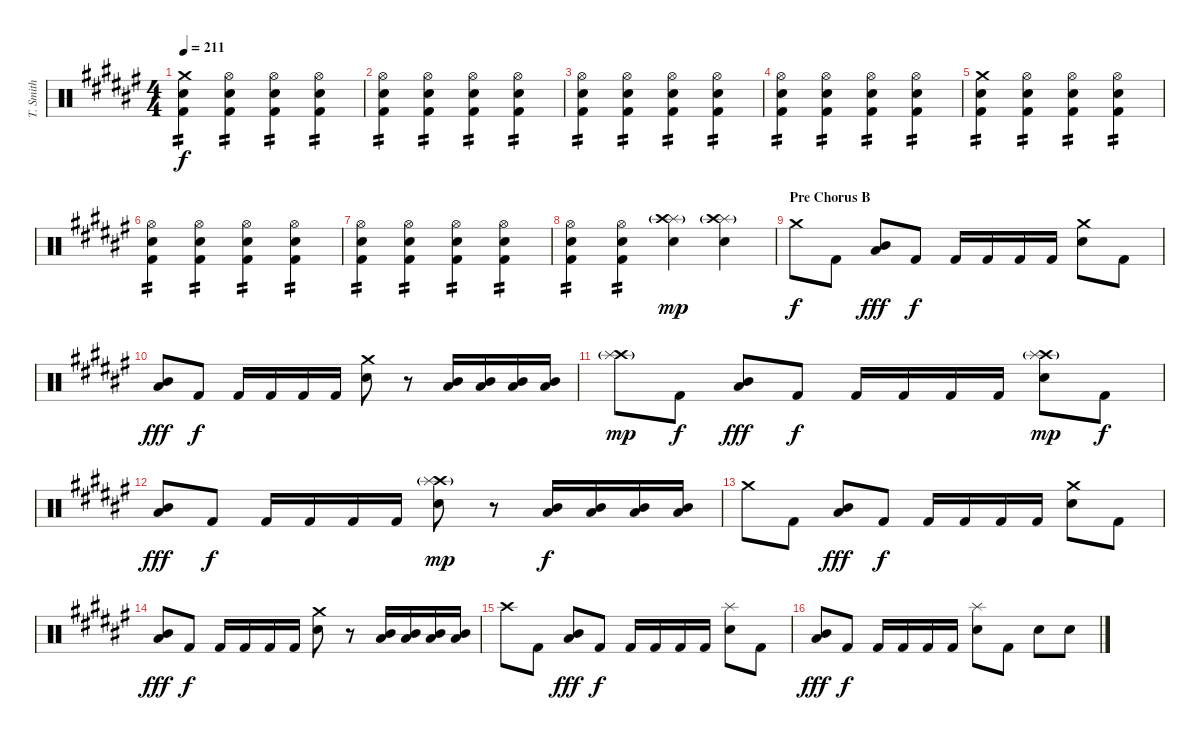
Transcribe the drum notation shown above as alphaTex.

\track ("T. Smith" "T. Smith") {instrument percussion}
\staff {score}
\articulation defaults
\ts (4 4)
\tempo 211
\clef neutral
\ks d#minor
("Crash medium (hit)" "Electric Snare (hit)" "Kick (hit) 2").4{tp 2 dy f} ("Hi-Hat (open)" "Electric Snare (hit)" "Kick (hit) 2").4{tp 2} ("Hi-Hat (open)" "Electric Snare (hit)" "Kick (hit) 2").4{tp 2} ("Hi-Hat (open)" "Electric Snare (hit)" "Kick (hit) 2").4{tp 2} |
("Hi-Hat (open)" "Electric Snare (hit)" "Kick (hit) 2").4{tp 2} ("Hi-Hat (open)" "Electric Snare (hit)" "Kick (hit) 2").4{tp 2} ("Hi-Hat (open)" "Electric Snare (hit)" "Kick (hit) 2").4{tp 2} ("Hi-Hat (open)" "Electric Snare (hit)" "Kick (hit) 2").4{tp 2} |
("Hi-Hat (open)" "Electric Snare (hit)" "Kick (hit) 2").4{tp 2} ("Hi-Hat (open)" "Electric Snare (hit)" "Kick (hit) 2").4{tp 2} ("Hi-Hat (open)" "Electric Snare (hit)" "Kick (hit) 2").4{tp 2} ("Hi-Hat (open)" "Electric Snare (hit)" "Kick (hit) 2").4{tp 2} |
("Hi-Hat (open)" "Electric Snare (hit)" "Kick (hit) 2").4{tp 2} ("Hi-Hat (open)" "Electric Snare (hit)" "Kick (hit) 2").4{tp 2} ("Hi-Hat (open)" "Electric Snare (hit)" "Kick (hit) 2").4{tp 2} ("Hi-Hat (open)" "Electric Snare (hit)" "Kick (hit) 2").4{tp 2} |
("Crash medium (hit)" "Electric Snare (hit)" "Kick (hit) 2").4{tp 2} ("Hi-Hat (open)" "Electric Snare (hit)" "Kick (hit) 2").4{tp 2} ("Hi-Hat (open)" "Electric Snare (hit)" "Kick (hit) 2").4{tp 2} ("Hi-Hat (open)" "Electric Snare (hit)" "Kick (hit) 2").4{tp 2} |
("Hi-Hat (open)" "Electric Snare (hit)" "Kick (hit) 2").4{tp 2} ("Hi-Hat (open)" "Electric Snare (hit)" "Kick (hit) 2").4{tp 2} ("Hi-Hat (open)" "Electric Snare (hit)" "Kick (hit) 2").4{tp 2} ("Hi-Hat (open)" "Electric Snare (hit)" "Kick (hit) 2").4{tp 2} |
("Hi-Hat (open)" "Electric Snare (hit)" "Kick (hit) 2").4{tp 2} ("Hi-Hat (open)" "Electric Snare (hit)" "Kick (hit) 2").4{tp 2} ("Hi-Hat (open)" "Electric Snare (hit)" "Kick (hit) 2").4{tp 2} ("Hi-Hat (open)" "Electric Snare (hit)" "Kick (hit) 2").4{tp 2} |
("Hi-Hat (open)" "Electric Snare (hit)" "Kick (hit) 2").4{tp 2} ("Hi-Hat (open)" "Electric Snare (hit)" "Kick (hit) 2").4{tp 2} ("Splash (hit)" "Crash high (hit)"{g} "Electric Snare (hit)").4{dy mp} ("Splash (hit)" "Crash high (hit)"{g} "Electric Snare (hit)").4 |
\section ("" "Pre Chorus B")
"Crash medium (hit)".8{dy f} "Kick (hit) 2".8 ("Mid Tom (hit)" "Low Tom (hit)").8{dy fff} "Kick (hit) 2".8{dy f} "Kick (hit) 2".16 "Kick (hit) 2".16 "Kick (hit) 2".16 "Kick (hit) 2".16 ("Crash medium (hit)" "Electric Snare (hit)").8 "Kick (hit) 2".8 |
("Mid Tom (hit)" "Low Tom (hit)").8{dy fff} "Kick (hit) 2".8{dy f} "Kick (hit) 2".16 "Kick (hit) 2".16 "Kick (hit) 2".16 "Kick (hit) 2".16 ("Crash medium (hit)" "Electric Snare (hit)").8 r.8 ("Mid Tom (hit)" "Low Tom (hit)").16 ("Mid Tom (hit)" "Low Tom (hit)").16 ("Mid Tom (hit)" "Low Tom (hit)").16 ("Mid Tom (hit)" "Low Tom (hit)").16 |
("Crash high (hit)"{g} "Splash (hit)").8{dy mp} "Kick (hit) 2".8{dy f} ("Mid Tom (hit)" "Low Tom (hit)").8{dy fff} "Kick (hit) 2".8{dy f} "Kick (hit) 2".16 "Kick (hit) 2".16 "Kick (hit) 2".16 "Kick (hit) 2".16 ("Crash high (hit)"{g} "Splash (hit)" "Electric Snare (hit)").8{dy mp} "Kick (hit) 2".8{dy f} |
("Mid Tom (hit)" "Low Tom (hit)").8{dy fff} "Kick (hit) 2".8{dy f} "Kick (hit) 2".16 "Kick (hit) 2".16 "Kick (hit) 2".16 "Kick (hit) 2".16 ("Crash high (hit)"{g} "Splash (hit)" "Electric Snare (hit)").8{dy mp} r.8 ("Mid Tom (hit)" "Low Tom (hit)").16{dy f} ("Mid Tom (hit)" "Low Tom (hit)").16 ("Mid Tom (hit)" "Low Tom (hit)").16 ("Mid Tom (hit)" "Low Tom (hit)").16 |
"Crash medium (hit)".8 "Kick (hit) 2".8 ("Mid Tom (hit)" "Low Tom (hit)").8{dy fff} "Kick (hit) 2".8{dy f} "Kick (hit) 2".16 "Kick (hit) 2".16 "Kick (hit) 2".16 "Kick (hit) 2".16 ("Crash medium (hit)" "Electric Snare (hit)").8 "Kick (hit) 2".8 |
("Mid Tom (hit)" "Low Tom (hit)").8{dy fff} "Kick (hit) 2".8{dy f} "Kick (hit) 2".16 "Kick (hit) 2".16 "Kick (hit) 2".16 "Kick (hit) 2".16 ("Crash medium (hit)" "Electric Snare (hit)").8 r.8 ("Mid Tom (hit)" "Low Tom (hit)").16 ("Mid Tom (hit)" "Low Tom (hit)").16 ("Mid Tom (hit)" "Low Tom (hit)").16 ("Mid Tom (hit)" "Low Tom (hit)").16 |
"Crash high (hit)".8 "Kick (hit) 2".8 ("Mid Tom (hit)" "Low Tom (hit)").8{dy fff} "Kick (hit) 2".8{dy f} "Kick (hit) 2".16 "Kick (hit) 2".16 "Kick (hit) 2".16 "Kick (hit) 2".16 ("Splash (hit)" "Electric Snare (hit)").8 "Kick (hit) 2".8 |
("Mid Tom (hit)" "Low Tom (hit)").8{dy fff} "Kick (hit) 2".8{dy f} "Kick (hit) 2".16 "Kick (hit) 2".16 "Kick (hit) 2".16 "Kick (hit) 2".16 ("Splash (hit)" "Electric Snare (hit)").8 "Kick (hit) 2".8 "Electric Snare (hit)".8 "Electric Snare (hit)".8
